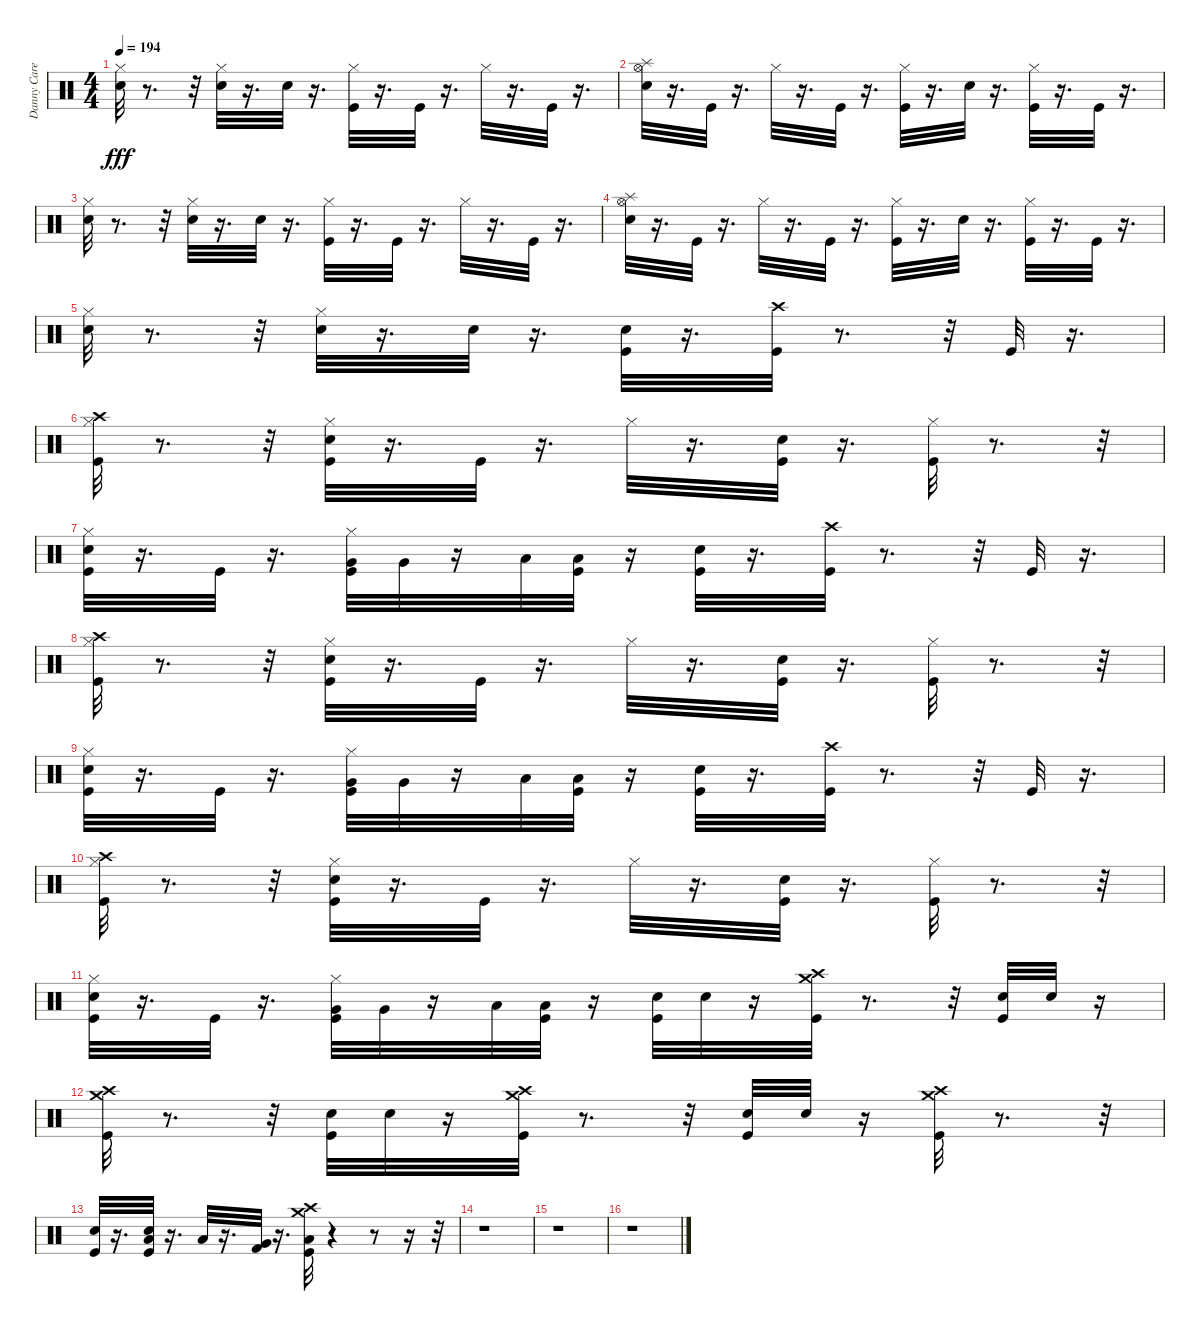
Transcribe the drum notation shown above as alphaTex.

\track ("Danny Carey" "Danny Care") {instrument percussion}
\staff {score}
\articulation defaults
\ts (4 4)
\tempo 194
\clef neutral
\ks c
("Hi-Hat (closed)" "Snare (hit) 2").32{dy fff} r.8{d} r.32 ("Snare (hit) 2" "Hi-Hat (closed)").32 r.16{d} "Snare (hit) 2".32 r.16{d} ("Hi-Hat (closed)" "Kick (hit)").32 r.16{d} "Kick (hit)".32 r.16{d} "Hi-Hat (closed)".32 r.16{d} "Kick (hit)".32 r.16{d} |
("Splash (hit)" "Hi-Hat (open)" "Snare (hit) 2").32 r.16{d} "Kick (hit)".32 r.16{d} "Hi-Hat (closed)".32 r.16{d} "Kick (hit)".32 r.16{d} ("Kick (hit)" "Hi-Hat (closed)").32 r.16{d} "Snare (hit) 2".32 r.16{d} ("Kick (hit)" "Hi-Hat (closed)").32 r.16{d} "Kick (hit)".32 r.16{d} |
("Hi-Hat (closed)" "Snare (hit) 2").32 r.8{d} r.32 ("Snare (hit) 2" "Hi-Hat (closed)").32 r.16{d} "Snare (hit) 2".32 r.16{d} ("Hi-Hat (closed)" "Kick (hit)").32 r.16{d} "Kick (hit)".32 r.16{d} "Hi-Hat (closed)".32 r.16{d} "Kick (hit)".32 r.16{d} |
("Splash (hit)" "Hi-Hat (open)" "Snare (hit) 2").32 r.16{d} "Kick (hit)".32 r.16{d} "Hi-Hat (closed)".32 r.16{d} "Kick (hit)".32 r.16{d} ("Kick (hit)" "Hi-Hat (closed)").32 r.16{d} "Snare (hit) 2".32 r.16{d} ("Kick (hit)" "Hi-Hat (closed)").32 r.16{d} "Kick (hit)".32 r.16{d} |
("Hi-Hat (closed)" "Snare (hit) 2").32 r.8{d} r.32 ("Snare (hit) 2" "Hi-Hat (closed)").32 r.16{d} "Snare (hit) 2".32 r.16{d} ("Snare (hit) 2" "Kick (hit)").32 r.16{d} ("Kick (hit)" "Crash high (hit)").32 r.8{d} r.32 "Kick (hit)".32 r.16{d} |
("Hi-Hat (closed)" "Crash high (hit)" "Kick (hit)").32 r.8{d} r.32 ("Hi-Hat (closed)" "Snare (hit) 2" "Kick (hit)").32 r.16{d} "Kick (hit)".32 r.16{d} "Hi-Hat (closed)".32 r.16{d} ("Snare (hit) 2" "Kick (hit)").32 r.16{d} ("Hi-Hat (closed)" "Kick (hit)").32 r.8{d} r.32 |
("Snare (hit) 2" "Hi-Hat (closed)" "Kick (hit)").32 r.16{d} "Kick (hit)".32 r.16{d} ("Kick (hit)" "Very Low Tom (hit)" "Hi-Hat (closed)").32 "Very Low Tom (hit)".32 r.16 "Low Floor Tom (hit)".32 ("Low Floor Tom (hit)" "Kick (hit)").32 r.16 ("Snare (hit) 2" "Kick (hit)").32 r.16{d} ("Kick (hit)" "Crash high (hit)").32 r.8{d} r.32 "Kick (hit)".32 r.16{d} |
("Hi-Hat (closed)" "Crash high (hit)" "Kick (hit)").32 r.8{d} r.32 ("Hi-Hat (closed)" "Snare (hit) 2" "Kick (hit)").32 r.16{d} "Kick (hit)".32 r.16{d} "Hi-Hat (closed)".32 r.16{d} ("Snare (hit) 2" "Kick (hit)").32 r.16{d} ("Hi-Hat (closed)" "Kick (hit)").32 r.8{d} r.32 |
("Snare (hit) 2" "Hi-Hat (closed)" "Kick (hit)").32 r.16{d} "Kick (hit)".32 r.16{d} ("Kick (hit)" "Very Low Tom (hit)" "Hi-Hat (closed)").32 "Very Low Tom (hit)".32 r.16 "Low Floor Tom (hit)".32 ("Kick (hit)" "Low Floor Tom (hit)").32 r.16 ("Snare (hit) 2" "Kick (hit)").32 r.16{d} ("Kick (hit)" "Crash high (hit)").32 r.8{d} r.32 "Kick (hit)".32 r.16{d} |
("Hi-Hat (closed)" "Crash high (hit)" "Kick (hit)").32 r.8{d} r.32 ("Hi-Hat (closed)" "Snare (hit) 2" "Kick (hit)").32 r.16{d} "Kick (hit)".32 r.16{d} "Hi-Hat (closed)".32 r.16{d} ("Snare (hit) 2" "Kick (hit)").32 r.16{d} ("Hi-Hat (closed)" "Kick (hit)").32 r.8{d} r.32 |
("Snare (hit) 2" "Hi-Hat (closed)" "Kick (hit)").32 r.16{d} "Kick (hit)".32 r.16{d} ("Kick (hit)" "Very Low Tom (hit)" "Hi-Hat (closed)").32 "Very Low Tom (hit)".32 r.16 "Low Floor Tom (hit)".32 ("Kick (hit)" "Low Floor Tom (hit)").32 r.16 ("Snare (hit) 2" "Kick (hit)").32 "Snare (hit) 2".32 r.16 ("Crash medium (hit)" "Crash high (hit)" "Kick (hit)").32 r.8{d} r.32 ("Snare (hit) 2" "Kick (hit)").32 "Snare (hit) 2".32 r.16 |
("Crash high (hit)" "Crash medium (hit)" "Kick (hit)").32 r.8{d} r.32 ("Snare (hit) 2" "Kick (hit)").32 "Snare (hit) 2".32 r.16 ("Crash medium (hit)" "Crash high (hit)" "Kick (hit)").32 r.8{d} r.32 ("Kick (hit)" "Snare (hit) 2").32 "Snare (hit) 2".32 r.16 ("Crash medium (hit)" "Crash high (hit)" "Kick (hit)").32 r.8{d} r.32 |
("Kick (hit)" "Snare (hit) 2").32 r.16{d} ("Kick (hit)" "Low Tom (hit)" "Snare (hit) 2").32 r.16{d} "Low Tom (hit)".32 r.16{d} ("Kick (hit) 2" "Very Low Tom (hit)").32 r.16{d} ("Crash medium (hit)" "Crash high (hit)" "Kick (hit)" "Low Floor Tom (hit)").32 r.4 r.8 r.16 r.32 |
r.1 |
r.1 |
r.1
